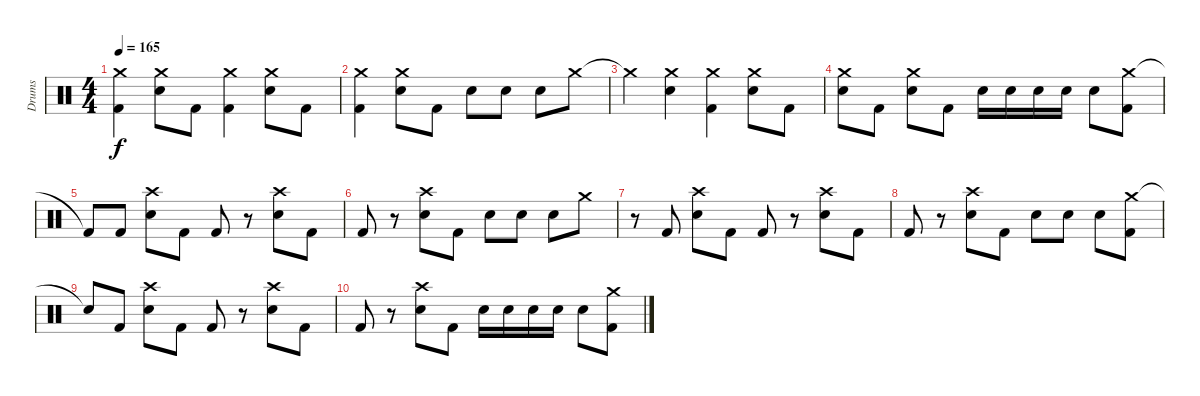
\track ("Drums" "Drums") {instrument percussion}
\staff {score}
\articulation defaults
\ts (4 4)
\tempo 165
\clef neutral
\ks c
("Crash medium (hit)" "Kick (hit) 2").4{dy f} ("Crash medium (hit)" "Snare (hit) 2").8 "Kick (hit) 2".8 ("Crash medium (hit)" "Kick (hit) 2").4 ("Crash medium (hit)" "Snare (hit) 2").8 "Kick (hit) 2".8 |
("Crash medium (hit)" "Kick (hit) 2").4 ("Crash medium (hit)" "Snare (hit) 2").8 "Kick (hit) 2".8 "Snare (hit) 2".8 "Snare (hit) 2".8 "Snare (hit) 2".8 "Crash medium (hit)".8 |
"Crash medium (hit)"{t}.4 ("Crash medium (hit)" "Snare (hit) 2").4 ("Crash medium (hit)" "Kick (hit) 2").4 ("Crash medium (hit)" "Snare (hit) 2").8 "Kick (hit) 2".8 |
("Crash medium (hit)" "Snare (hit) 2").8 "Kick (hit) 2".8 ("Crash medium (hit)" "Snare (hit) 2").8 "Kick (hit) 2".8 "Snare (hit) 2".16 "Snare (hit) 2".16 "Snare (hit) 2".16 "Snare (hit) 2".16 "Snare (hit) 2".8 ("Crash medium (hit)" "Kick (hit) 2").8 |
"Kick (hit) 2"{t}.8 "Kick (hit) 2".8 ("Crash high (hit)" "Snare (hit) 2").8 "Kick (hit) 2".8 "Kick (hit) 2".8 r.8 ("Crash high (hit)" "Snare (hit) 2").8 "Kick (hit) 2".8 |
"Kick (hit) 2".8 r.8 ("Crash high (hit)" "Snare (hit) 2").8 "Kick (hit) 2".8 "Snare (hit) 2".8 "Snare (hit) 2".8 "Snare (hit) 2".8 "Crash medium (hit)".8 |
r.8 "Kick (hit) 2".8 ("Crash high (hit)" "Snare (hit) 2").8 "Kick (hit) 2".8 "Kick (hit) 2".8 r.8 ("Crash high (hit)" "Snare (hit) 2").8 "Kick (hit) 2".8 |
"Kick (hit) 2".8 r.8 ("Crash high (hit)" "Snare (hit) 2").8 "Kick (hit) 2".8 "Snare (hit) 2".8 "Snare (hit) 2".8 "Snare (hit) 2".8 ("Crash medium (hit)" "Kick (hit) 2").8 |
"Snare (hit)"{t}.8 "Kick (hit) 2".8 ("Crash high (hit)" "Snare (hit) 2").8 "Kick (hit) 2".8 "Kick (hit) 2".8 r.8 ("Crash high (hit)" "Snare (hit) 2").8 "Kick (hit) 2".8 |
"Kick (hit) 2".8 r.8 ("Crash high (hit)" "Snare (hit) 2").8 "Kick (hit) 2".8 "Snare (hit) 2".16 "Snare (hit) 2".16 "Snare (hit) 2".16 "Snare (hit) 2".16 "Snare (hit) 2".8 ("Crash medium (hit)" "Kick (hit) 2").8
